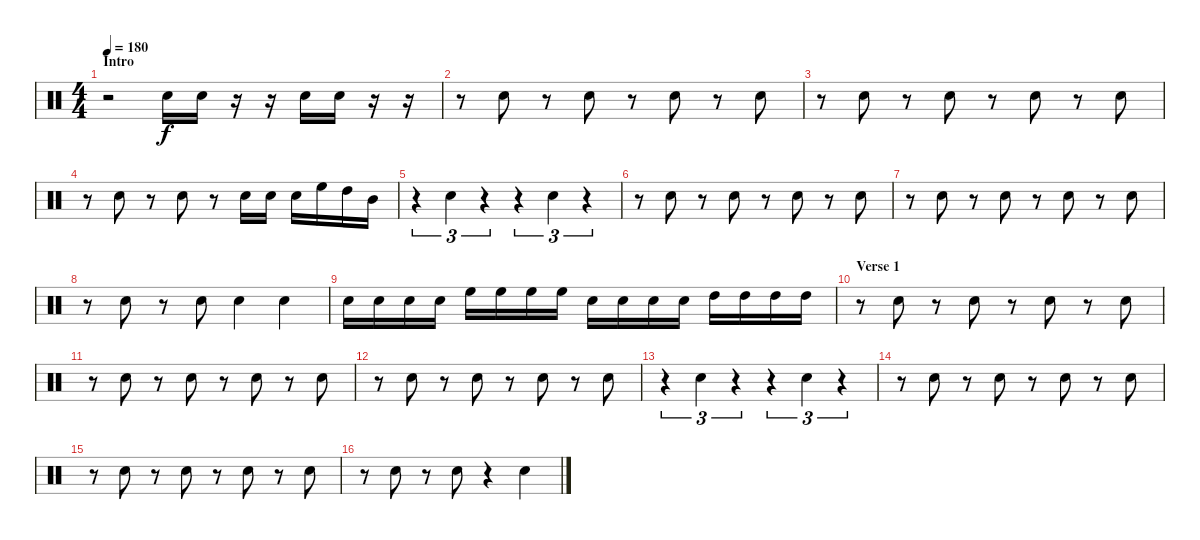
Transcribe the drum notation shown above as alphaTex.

\track "" {instrument percussion}
\staff {score}
\articulation defaults
\ts (4 4)
\section ("" "Intro")
\tempo 180
\clef neutral
\ks c
r.2{dy f} "Electric Snare (hit)".16 "Electric Snare (hit)".16 r.16 r.16 "Electric Snare (hit)".16 "Electric Snare (hit)".16 r.16 r.16 |
r.8 "Electric Snare (hit)".8 r.8 "Electric Snare (hit)".8 r.8 "Electric Snare (hit)".8 r.8 "Electric Snare (hit)".8 |
r.8 "Electric Snare (hit)".8 r.8 "Electric Snare (hit)".8 r.8 "Electric Snare (hit)".8 r.8 "Electric Snare (hit)".8 |
r.8 "Electric Snare (hit)".8 r.8 "Electric Snare (hit)".8 r.8 "Electric Snare (hit)".16 "Electric Snare (hit)".16 "Electric Snare (hit)".16 "High Floor Tom (hit)".16 "High Tom (hit)".16 "Mid Tom (hit)".16 |
r.4{tu (3 2)} "Electric Snare (hit)".4{tu (3 2)} r.4{tu (3 2)} r.4{tu (3 2)} "Electric Snare (hit)".4{tu (3 2)} r.4{tu (3 2)} |
r.8 "Electric Snare (hit)".8 r.8 "Electric Snare (hit)".8 r.8 "Electric Snare (hit)".8 r.8 "Electric Snare (hit)".8 |
r.8 "Electric Snare (hit)".8 r.8 "Electric Snare (hit)".8 r.8 "Electric Snare (hit)".8 r.8 "Electric Snare (hit)".8 |
r.8 "Electric Snare (hit)".8 r.8 "Electric Snare (hit)".8 "Electric Snare (hit)".4 "Electric Snare (hit)".4 |
"Electric Snare (hit)".16 "Electric Snare (hit)".16 "Electric Snare (hit)".16 "Electric Snare (hit)".16 "High Floor Tom (hit)".16 "High Floor Tom (hit)".16 "High Floor Tom (hit)".16 "High Floor Tom (hit)".16 "Electric Snare (hit)".16 "Electric Snare (hit)".16 "Electric Snare (hit)".16 "Electric Snare (hit)".16 "High Tom (hit)".16 "High Tom (hit)".16 "High Tom (hit)".16 "High Tom (hit)".16 |
\section ("" "Verse 1")
r.8 "Electric Snare (hit)".8 r.8 "Electric Snare (hit)".8 r.8 "Electric Snare (hit)".8 r.8 "Electric Snare (hit)".8 |
r.8 "Electric Snare (hit)".8 r.8 "Electric Snare (hit)".8 r.8 "Electric Snare (hit)".8 r.8 "Electric Snare (hit)".8 |
r.8 "Electric Snare (hit)".8 r.8 "Electric Snare (hit)".8 r.8 "Electric Snare (hit)".8 r.8 "Electric Snare (hit)".8 |
r.4{tu (3 2)} "Electric Snare (hit)".4{tu (3 2)} r.4{tu (3 2)} r.4{tu (3 2)} "Electric Snare (hit)".4{tu (3 2)} r.4{tu (3 2)} |
r.8 "Electric Snare (hit)".8 r.8 "Electric Snare (hit)".8 r.8 "Electric Snare (hit)".8 r.8 "Electric Snare (hit)".8 |
r.8 "Electric Snare (hit)".8 r.8 "Electric Snare (hit)".8 r.8 "Electric Snare (hit)".8 r.8 "Electric Snare (hit)".8 |
r.8 "Electric Snare (hit)".8 r.8 "Electric Snare (hit)".8 r.4 "Electric Snare (hit)".4
